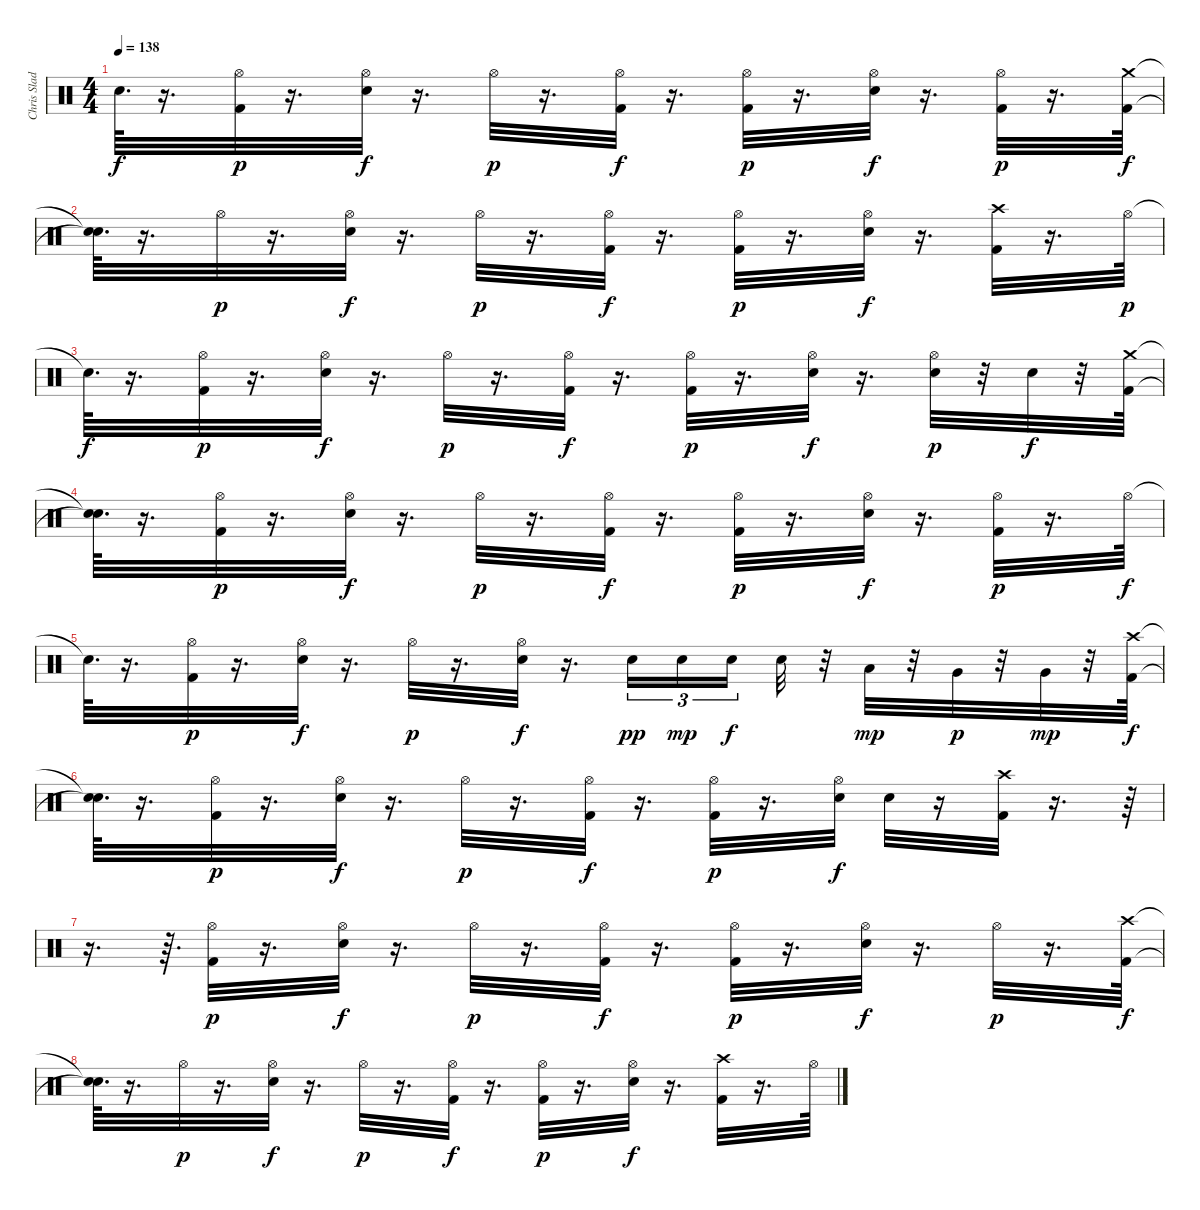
\track ("Chris Slade" "Chris Slad") {instrument percussion}
\staff {score}
\articulation defaults
\ts (4 4)
\tempo 138
\clef neutral
\ks c "Snare (hit)"{t}.64{d dy f}
r.16{d} ("Kick (hit) 2" "Hi-Hat (open)").32{dy p} r.16{d} ("Hi-Hat (open)" "Electric Snare (hit)").32{dy f} r.16{d} "Hi-Hat (open)".32{dy p} r.16{d} ("Hi-Hat (open)" "Kick (hit) 2").32{dy f} r.16{d} ("Kick (hit) 2" "Hi-Hat (open)").32{dy p} r.16{d} ("Hi-Hat (open)" "Electric Snare (hit)").32{dy f} r.16{d} ("Kick (hit) 2" "Hi-Hat (open)").32{dy p} r.16{d} ("Crash medium (hit)" "Kick (hit) 2").64{dy f} |
("Snare (hit)"{t} "Snare (hit)"{t}).64{d} r.16{d} "Hi-Hat (open)".32{dy p} r.16{d} ("Hi-Hat (open)" "Electric Snare (hit)").32{dy f} r.16{d} "Hi-Hat (open)".32{dy p} r.16{d} ("Hi-Hat (open)" "Kick (hit) 2").32{dy f} r.16{d} ("Hi-Hat (open)" "Kick (hit) 2").32{dy p} r.16{d} ("Hi-Hat (open)" "Electric Snare (hit)").32{dy f} r.16{d} ("Crash high (hit)" "Kick (hit) 2").32 r.16{d} "Hi-Hat (open)".64{dy p} |
"Snare (hit)"{t}.64{d dy f} r.16{d} ("Kick (hit) 2" "Hi-Hat (open)").32{dy p} r.16{d} ("Hi-Hat (open)" "Electric Snare (hit)").32{dy f} r.16{d} "Hi-Hat (open)".32{dy p} r.16{d} ("Hi-Hat (open)" "Kick (hit) 2").32{dy f} r.16{d} ("Kick (hit) 2" "Hi-Hat (open)").32{dy p} r.16{d} ("Hi-Hat (open)" "Electric Snare (hit)").32{dy f} r.16{d} ("Electric Snare (hit)" "Hi-Hat (open)").32{dy p} r.32 "Electric Snare (hit)".32{dy f} r.32 ("Crash medium (hit)" "Kick (hit) 2").64 |
("Snare (hit)"{t} "Snare (hit)"{t}).64{d} r.16{d} ("Kick (hit) 2" "Hi-Hat (open)").32{dy p} r.16{d} ("Hi-Hat (open)" "Electric Snare (hit)").32{dy f} r.16{d} "Hi-Hat (open)".32{dy p} r.16{d} ("Hi-Hat (open)" "Kick (hit) 2").32{dy f} r.16{d} ("Kick (hit) 2" "Hi-Hat (open)").32{dy p} r.16{d} ("Hi-Hat (open)" "Electric Snare (hit)").32{dy f} r.16{d} ("Kick (hit) 2" "Hi-Hat (open)").32{dy p} r.16{d} "Hi-Hat (open)".64{dy f} |
"Snare (hit)"{t}.64{d} r.16{d} ("Kick (hit) 2" "Hi-Hat (open)").32{dy p} r.16{d} ("Hi-Hat (open)" "Electric Snare (hit)").32{dy f} r.16{d} "Hi-Hat (open)".32{dy p} r.16{d} ("Electric Snare (hit)" "Hi-Hat (open)").32{dy f} r.16{d} "Electric Snare (hit)".16{tu (3 2) dy pp} "Electric Snare (hit)".16{tu (3 2) dy mp} "Electric Snare (hit)".16{tu (3 2) dy f beam splitsecondary} "Electric Snare (hit)".32 r.32 "Low Tom (hit)".32{dy mp} r.32 "Very Low Tom (hit)".32{dy p} r.32 "Very Low Tom (hit)".32{dy mp} r.32 ("Crash high (hit)" "Kick (hit) 2").64{dy f} |
("Snare (hit)"{t} "Snare (hit)"{t}).64{d} r.16{d} ("Kick (hit) 2" "Hi-Hat (open)").32{dy p} r.16{d} ("Hi-Hat (open)" "Electric Snare (hit)").32{dy f} r.16{d} "Hi-Hat (open)".32{dy p} r.16{d} ("Hi-Hat (open)" "Kick (hit) 2").32{dy f} r.16{d} ("Kick (hit) 2" "Hi-Hat (open)").32{dy p} r.16{d} ("Hi-Hat (open)" "Electric Snare (hit)").32{dy f} "Snare (hit) 2".32 r.16 ("Crash high (hit)" "Kick (hit) 2").32 r.16{d} r.64 |
r.16{d} r.64{d} ("Kick (hit) 2" "Hi-Hat (open)").32{dy p} r.16{d} ("Hi-Hat (open)" "Electric Snare (hit)").32{dy f} r.16{d} "Hi-Hat (open)".32{dy p} r.16{d} ("Hi-Hat (open)" "Kick (hit) 2").32{dy f} r.16{d} ("Kick (hit) 2" "Hi-Hat (open)").32{dy p} r.16{d} ("Hi-Hat (open)" "Electric Snare (hit)").32{dy f} r.16{d} "Hi-Hat (open)".32{dy p} r.16{d} ("Crash high (hit)" "Kick (hit) 2").64{dy f} |
("Snare (hit)"{t} "Snare (hit)"{t}).64{d} r.16{d} "Hi-Hat (open)".32{dy p} r.16{d} ("Hi-Hat (open)" "Electric Snare (hit)").32{dy f} r.16{d} "Hi-Hat (open)".32{dy p} r.16{d} ("Hi-Hat (open)" "Kick (hit) 2").32{dy f} r.16{d} ("Kick (hit) 2" "Hi-Hat (open)").32{dy p} r.16{d} ("Hi-Hat (open)" "Electric Snare (hit)").32{dy f} r.16{d} ("Crash high (hit)" "Kick (hit) 2").32 r.16{d} "Hi-Hat (open)".64
